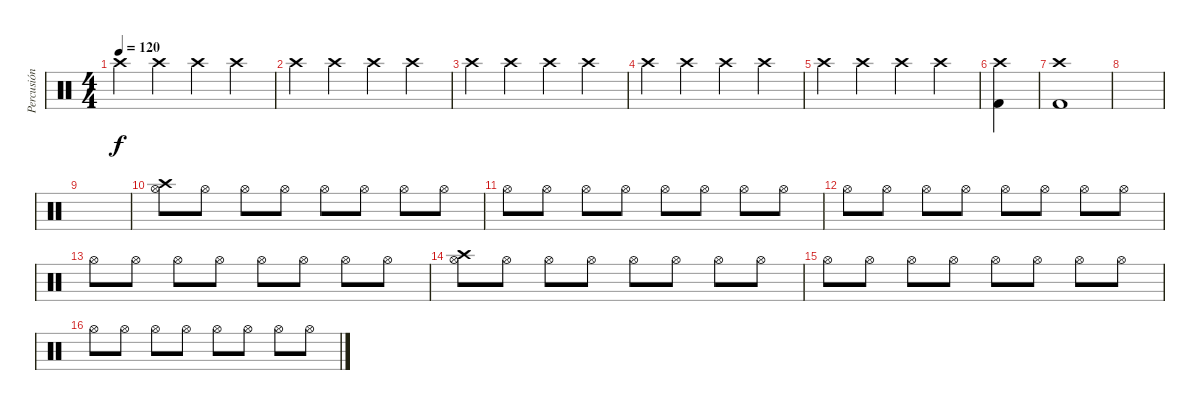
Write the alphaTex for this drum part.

\track ("Percusión" "Percusión") {instrument percussion}
\staff {score}
\articulation defaults
\ts (4 4)
\tempo 120
\clef neutral
\ks c "Crash high (hit)".4{dy f} "Crash high (hit)".4 "Crash high (hit)".4 "Crash high (hit)".4
|
"Crash high (hit)".4 "Crash high (hit)".4 "Crash high (hit)".4 "Crash high (hit)".4 |
"Crash high (hit)".4 "Crash high (hit)".4 "Crash high (hit)".4 "Crash high (hit)".4 |
"Crash high (hit)".4 "Crash high (hit)".4 "Crash high (hit)".4 "Crash high (hit)".4 |
"Crash high (hit)".4 "Crash high (hit)".4 "Crash high (hit)".4 "Crash high (hit)".4 |
("Crash high (hit)" "Kick (hit) 2").4 |
("Crash high (hit)" "Kick (hit) 2").1 |
|
|
("Hi-Hat (open)" "Crash high (hit)").8 "Hi-Hat (open)".8 "Hi-Hat (open)".8 "Hi-Hat (open)".8 "Hi-Hat (open)".8 "Hi-Hat (open)".8 "Hi-Hat (open)".8 "Hi-Hat (open)".8 |
"Hi-Hat (open)".8 "Hi-Hat (open)".8 "Hi-Hat (open)".8 "Hi-Hat (open)".8 "Hi-Hat (open)".8 "Hi-Hat (open)".8 "Hi-Hat (open)".8 "Hi-Hat (open)".8 |
"Hi-Hat (open)".8 "Hi-Hat (open)".8 "Hi-Hat (open)".8 "Hi-Hat (open)".8 "Hi-Hat (open)".8 "Hi-Hat (open)".8 "Hi-Hat (open)".8 "Hi-Hat (open)".8 |
"Hi-Hat (open)".8 "Hi-Hat (open)".8 "Hi-Hat (open)".8 "Hi-Hat (open)".8 "Hi-Hat (open)".8 "Hi-Hat (open)".8 "Hi-Hat (open)".8 "Hi-Hat (open)".8 |
("Hi-Hat (open)" "Crash high (hit)").8 "Hi-Hat (open)".8 "Hi-Hat (open)".8 "Hi-Hat (open)".8 "Hi-Hat (open)".8 "Hi-Hat (open)".8 "Hi-Hat (open)".8 "Hi-Hat (open)".8 |
"Hi-Hat (open)".8 "Hi-Hat (open)".8 "Hi-Hat (open)".8 "Hi-Hat (open)".8 "Hi-Hat (open)".8 "Hi-Hat (open)".8 "Hi-Hat (open)".8 "Hi-Hat (open)".8 |
"Hi-Hat (open)".8 "Hi-Hat (open)".8 "Hi-Hat (open)".8 "Hi-Hat (open)".8 "Hi-Hat (open)".8 "Hi-Hat (open)".8 "Hi-Hat (open)".8 "Hi-Hat (open)".8
